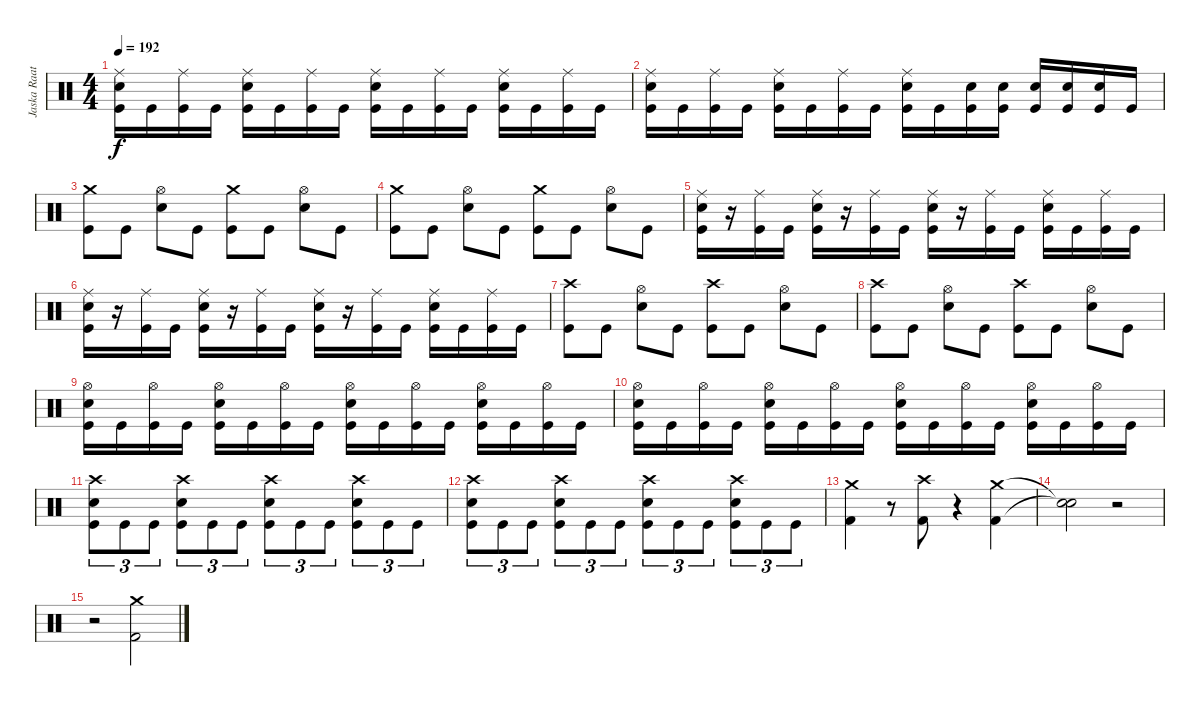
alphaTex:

\track ("Jaska Raatikainen" "Jaska Raat") {instrument percussion}
\staff {score}
\articulation defaults
\ts (4 4)
\tempo 192
\clef neutral
\ks c
("Ride (middle)" "Electric Snare (hit)" "Kick (hit)").16{dy f} "Kick (hit)".16 ("Ride (middle)" "Kick (hit)").16 "Kick (hit)".16 ("Ride (middle)" "Electric Snare (hit)" "Kick (hit)").16 "Kick (hit)".16 ("Ride (middle)" "Kick (hit)").16 "Kick (hit)".16 ("Ride (middle)" "Electric Snare (hit)" "Kick (hit)").16 "Kick (hit)".16 ("Ride (middle)" "Kick (hit)").16 "Kick (hit)".16 ("Ride (middle)" "Electric Snare (hit)" "Kick (hit)").16 "Kick (hit)".16 ("Ride (middle)" "Kick (hit)").16 "Kick (hit)".16 |
("Ride (middle)" "Electric Snare (hit)" "Kick (hit)").16 "Kick (hit)".16 ("Ride (middle)" "Kick (hit)").16 "Kick (hit)".16 ("Ride (middle)" "Electric Snare (hit)" "Kick (hit)").16 "Kick (hit)".16 ("Ride (middle)" "Kick (hit)").16 "Kick (hit)".16 ("Ride (middle)" "Electric Snare (hit)" "Kick (hit)").16 "Kick (hit)".16 ("Electric Snare (hit)" "Kick (hit)").16 ("Electric Snare (hit)" "Kick (hit)").16 ("Electric Snare (hit)" "Kick (hit)").16 ("Electric Snare (hit)" "Kick (hit)").16 ("Electric Snare (hit)" "Kick (hit)").16 "Kick (hit)".16 |
("Crash medium (hit)" "Kick (hit)").8 "Kick (hit)".8 ("Hi-Hat (open)" "Electric Snare (hit)").8 "Kick (hit)".8 ("Crash medium (hit)" "Kick (hit)").8 "Kick (hit)".8 ("Hi-Hat (open)" "Electric Snare (hit)").8 "Kick (hit)".8 |
("Crash medium (hit)" "Kick (hit)").8 "Kick (hit)".8 ("Hi-Hat (open)" "Electric Snare (hit)").8 "Kick (hit)".8 ("Crash medium (hit)" "Kick (hit)").8 "Kick (hit)".8 ("Hi-Hat (open)" "Electric Snare (hit)").8 "Kick (hit)".8 |
("Ride (middle)" "Electric Snare (hit)" "Kick (hit)").16 r.16 ("Ride (middle)" "Kick (hit)").16 "Kick (hit)".16 ("Ride (middle)" "Electric Snare (hit)" "Kick (hit)").16 r.16 ("Ride (middle)" "Kick (hit)").16 "Kick (hit)".16 ("Ride (middle)" "Electric Snare (hit)" "Kick (hit)").16 r.16 ("Ride (middle)" "Kick (hit)").16 "Kick (hit)".16 ("Ride (middle)" "Electric Snare (hit)" "Kick (hit)").16 "Kick (hit)".16 ("Ride (middle)" "Kick (hit)").16 "Kick (hit)".16 |
("Ride (middle)" "Electric Snare (hit)" "Kick (hit)").16 r.16 ("Ride (middle)" "Kick (hit)").16 "Kick (hit)".16 ("Ride (middle)" "Electric Snare (hit)" "Kick (hit)").16 r.16 ("Ride (middle)" "Kick (hit)").16 "Kick (hit)".16 ("Ride (middle)" "Electric Snare (hit)" "Kick (hit)").16 r.16 ("Ride (middle)" "Kick (hit)").16 "Kick (hit)".16 ("Ride (middle)" "Electric Snare (hit)" "Kick (hit)").16 "Kick (hit)".16 ("Ride (middle)" "Kick (hit)").16 "Kick (hit)".16 |
("Crash high (hit)" "Kick (hit)").8 "Kick (hit)".8 ("Hi-Hat (open)" "Electric Snare (hit)").8 "Kick (hit)".8 ("Crash high (hit)" "Kick (hit)").8 "Kick (hit)".8 ("Hi-Hat (open)" "Electric Snare (hit)").8 "Kick (hit)".8 |
("Crash high (hit)" "Kick (hit)").8 "Kick (hit)".8 ("Hi-Hat (open)" "Electric Snare (hit)").8 "Kick (hit)".8 ("Crash high (hit)" "Kick (hit)").8 "Kick (hit)".8 ("Hi-Hat (open)" "Electric Snare (hit)").8 "Kick (hit)".8 |
("Hi-Hat (open)" "Electric Snare (hit)" "Kick (hit)").16 "Kick (hit)".16 ("Hi-Hat (open)" "Kick (hit)").16 "Kick (hit)".16 ("Hi-Hat (open)" "Electric Snare (hit)" "Kick (hit)").16 "Kick (hit)".16 ("Hi-Hat (open)" "Kick (hit)").16 "Kick (hit)".16 ("Hi-Hat (open)" "Electric Snare (hit)" "Kick (hit)").16 "Kick (hit)".16 ("Hi-Hat (open)" "Kick (hit)").16 "Kick (hit)".16 ("Hi-Hat (open)" "Electric Snare (hit)" "Kick (hit)").16 "Kick (hit)".16 ("Hi-Hat (open)" "Kick (hit)").16 "Kick (hit)".16 |
("Hi-Hat (open)" "Electric Snare (hit)" "Kick (hit)").16 "Kick (hit)".16 ("Hi-Hat (open)" "Kick (hit)").16 "Kick (hit)".16 ("Hi-Hat (open)" "Electric Snare (hit)" "Kick (hit)").16 "Kick (hit)".16 ("Hi-Hat (open)" "Kick (hit)").16 "Kick (hit)".16 ("Hi-Hat (open)" "Electric Snare (hit)" "Kick (hit)").16 "Kick (hit)".16 ("Hi-Hat (open)" "Kick (hit)").16 "Kick (hit)".16 ("Hi-Hat (open)" "Electric Snare (hit)" "Kick (hit)").16 "Kick (hit)".16 ("Hi-Hat (open)" "Kick (hit)").16 "Kick (hit)".16 |
("Crash high (hit)" "Electric Snare (hit)" "Kick (hit)").8{tu (3 2)} "Kick (hit)".8{tu (3 2)} "Kick (hit)".8{tu (3 2)} ("Crash high (hit)" "Electric Snare (hit)" "Kick (hit)").8{tu (3 2)} "Kick (hit)".8{tu (3 2)} "Kick (hit)".8{tu (3 2)} ("Crash high (hit)" "Electric Snare (hit)" "Kick (hit)").8{tu (3 2)} "Kick (hit)".8{tu (3 2)} "Kick (hit)".8{tu (3 2)} ("Crash high (hit)" "Electric Snare (hit)" "Kick (hit)").8{tu (3 2)} "Kick (hit)".8{tu (3 2)} "Kick (hit)".8{tu (3 2)} |
("Crash high (hit)" "Electric Snare (hit)" "Kick (hit)").8{tu (3 2)} "Kick (hit)".8{tu (3 2)} "Kick (hit)".8{tu (3 2)} ("Crash high (hit)" "Electric Snare (hit)" "Kick (hit)").8{tu (3 2)} "Kick (hit)".8{tu (3 2)} "Kick (hit)".8{tu (3 2)} ("Crash high (hit)" "Electric Snare (hit)" "Kick (hit)").8{tu (3 2)} "Kick (hit)".8{tu (3 2)} "Kick (hit)".8{tu (3 2)} ("Crash high (hit)" "Electric Snare (hit)" "Kick (hit)").8{tu (3 2)} "Kick (hit)".8{tu (3 2)} "Kick (hit)".8{tu (3 2)} |
("Crash medium (hit)" "Kick (hit) 2").4 r.8 ("Crash high (hit)" "Kick (hit) 2").8 r.4 ("Crash medium (hit)" "Kick (hit) 2").4 |
("Snare (hit)"{t} "Snare (hit)"{t}).2 r.2 |
r.2 ("Crash medium (hit)" "Kick (hit) 2").2
